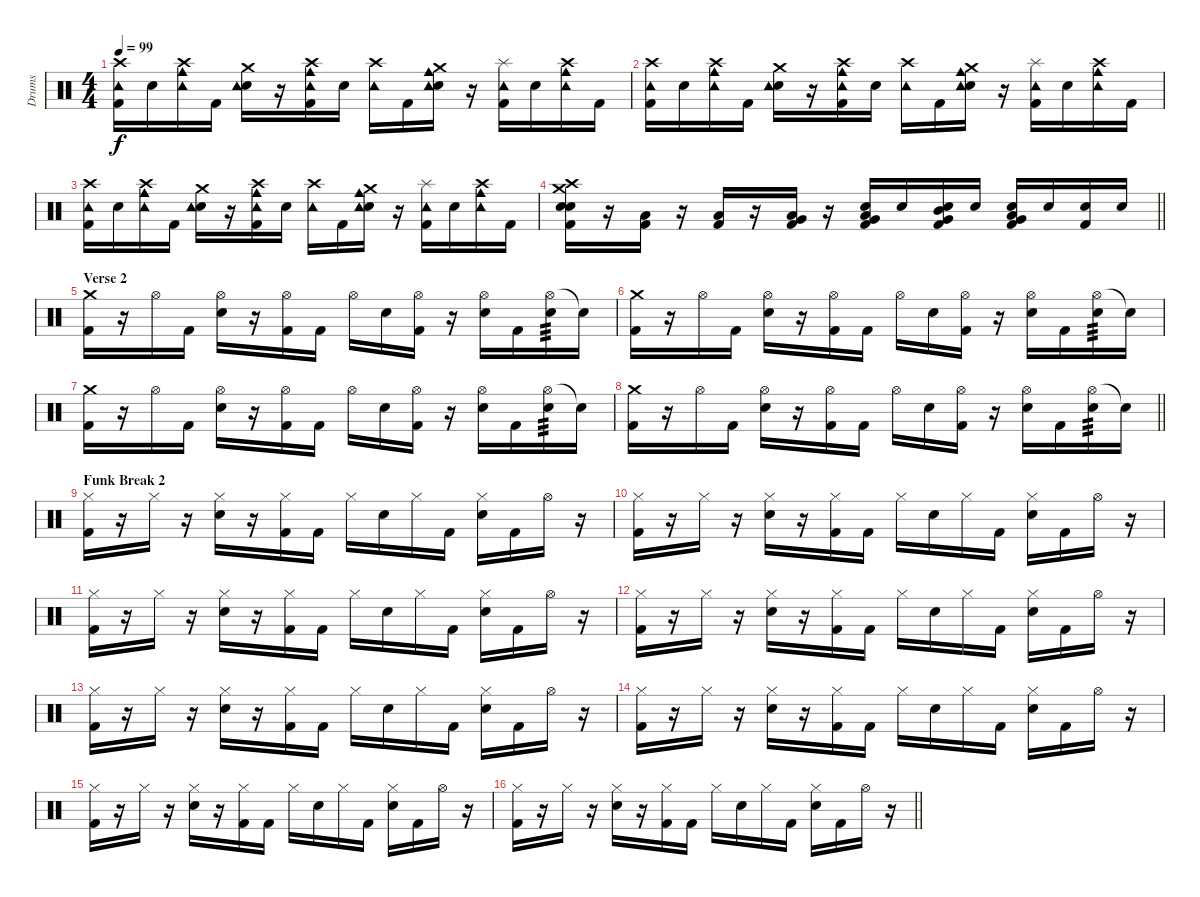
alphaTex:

\track ("Drums" "Drums") {instrument percussion}
\staff {score}
\articulation defaults
\ts (4 4)
\tempo 99
\clef neutral
\ks c
("Crash high (hit)" "Kick (hit) 2" "Tambourine (hit)").16{dy f} "Electric Snare (hit)".16 ("Crash high (hit)" "Tambourine (hit)" "Cowbell medium (hit)").16 "Kick (hit) 2".16 ("Crash medium (hit)" "Electric Snare (hit)" "Tambourine (hit)").16 r.16 ("Crash high (hit)" "Kick (hit) 2" "Tambourine (hit)" "Cowbell medium (hit)").16 "Electric Snare (hit)".16 ("Crash high (hit)" "Tambourine (hit)").16 "Kick (hit) 2".16 ("Crash medium (hit)" "Electric Snare (hit)" "Tambourine (hit)" "Cowbell medium (hit)").16 r.16 ("Splash (hit)" "Kick (hit) 2" "Tambourine (hit)").16 "Electric Snare (hit)".16 ("Crash high (hit)" "Tambourine (hit)" "Cowbell medium (hit)").16 "Kick (hit) 2".16 |
("Crash high (hit)" "Kick (hit) 2" "Tambourine (hit)").16 "Electric Snare (hit)".16 ("Crash high (hit)" "Tambourine (hit)" "Cowbell medium (hit)").16 "Kick (hit) 2".16 ("Crash medium (hit)" "Electric Snare (hit)" "Tambourine (hit)").16 r.16 ("Crash high (hit)" "Kick (hit) 2" "Tambourine (hit)" "Cowbell medium (hit)").16 "Electric Snare (hit)".16 ("Crash high (hit)" "Tambourine (hit)").16 "Kick (hit) 2".16 ("Crash medium (hit)" "Electric Snare (hit)" "Tambourine (hit)" "Cowbell medium (hit)").16 r.16 ("Splash (hit)" "Kick (hit) 2" "Tambourine (hit)").16 "Electric Snare (hit)".16 ("Crash high (hit)" "Tambourine (hit)" "Cowbell medium (hit)").16 "Kick (hit) 2".16 |
("Crash high (hit)" "Kick (hit) 2" "Tambourine (hit)").16 "Electric Snare (hit)".16 ("Crash high (hit)" "Tambourine (hit)" "Cowbell medium (hit)").16 "Kick (hit) 2".16 ("Crash medium (hit)" "Electric Snare (hit)" "Tambourine (hit)").16 r.16 ("Crash high (hit)" "Kick (hit) 2" "Tambourine (hit)" "Cowbell medium (hit)").16 "Electric Snare (hit)".16 ("Crash high (hit)" "Tambourine (hit)").16 "Kick (hit) 2".16 ("Crash medium (hit)" "Electric Snare (hit)" "Tambourine (hit)" "Cowbell medium (hit)").16 r.16 ("Splash (hit)" "Kick (hit) 2" "Tambourine (hit)").16 "Electric Snare (hit)".16 ("Crash high (hit)" "Tambourine (hit)" "Cowbell medium (hit)").16 "Kick (hit) 2".16 |
\barLineRight lightlight
("Crash high (hit)" "Crash medium (hit)" "Electric Snare (hit)" "Electric Snare (hit)" "Kick (hit) 2").16 r.16 ("Low Floor Tom (hit)" "Kick (hit) 2").16 r.16 ("Low Floor Tom (hit)" "Kick (hit) 2").16 r.16 ("Very Low Tom (hit)" "Low Floor Tom (hit)" "Kick (hit) 2").16 r.16 ("Electric Snare (hit)" "Low Tom (hit)" "Very Low Tom (hit)" "Kick (hit) 2").16 "Electric Snare (hit)".16 ("Electric Snare (hit)" "Very Low Tom (hit)" "Mid Tom (hit)" "Kick (hit) 2").16 "Electric Snare (hit)".16 ("Electric Snare (hit)" "Low Floor Tom (hit)" "Very Low Tom (hit)" "Kick (hit) 2").16 "Electric Snare (hit)".16 ("Electric Snare (hit)" "Kick (hit) 2").16 "Electric Snare (hit)".16 |
\section ("" "Verse 2")
("Crash medium (hit)" "Kick (hit) 2").16 r.16 "Hi-Hat (open)".16 "Kick (hit) 2".16 ("Hi-Hat (open)" "Electric Snare (hit)").16 r.16 ("Hi-Hat (open)" "Kick (hit) 2").16 "Kick (hit) 2".16 "Hi-Hat (open)".16 "Electric Snare (hit)".16 ("Hi-Hat (open)" "Kick (hit) 2").16 r.16 ("Hi-Hat (open)" "Electric Snare (hit)").16 "Kick (hit) 2".16 ("Hi-Hat (open)" "Electric Snare (hit)").16{tp 3} "Electric Snare (hit)"{t}.16 |
("Crash medium (hit)" "Kick (hit) 2").16 r.16 "Hi-Hat (open)".16 "Kick (hit) 2".16 ("Hi-Hat (open)" "Electric Snare (hit)").16 r.16 ("Hi-Hat (open)" "Kick (hit) 2").16 "Kick (hit) 2".16 "Hi-Hat (open)".16 "Electric Snare (hit)".16 ("Hi-Hat (open)" "Kick (hit) 2").16 r.16 ("Hi-Hat (open)" "Electric Snare (hit)").16 "Kick (hit) 2".16 ("Hi-Hat (open)" "Electric Snare (hit)").16{tp 3} "Electric Snare (hit)"{t}.16 |
("Crash medium (hit)" "Kick (hit) 2").16 r.16 "Hi-Hat (open)".16 "Kick (hit) 2".16 ("Hi-Hat (open)" "Electric Snare (hit)").16 r.16 ("Hi-Hat (open)" "Kick (hit) 2").16 "Kick (hit) 2".16 "Hi-Hat (open)".16 "Electric Snare (hit)".16 ("Hi-Hat (open)" "Kick (hit) 2").16 r.16 ("Hi-Hat (open)" "Electric Snare (hit)").16 "Kick (hit) 2".16 ("Hi-Hat (open)" "Electric Snare (hit)").16{tp 3} "Electric Snare (hit)"{t}.16 |
\barLineRight lightlight
("Crash medium (hit)" "Kick (hit) 2").16 r.16 "Hi-Hat (open)".16 "Kick (hit) 2".16 ("Hi-Hat (open)" "Electric Snare (hit)").16 r.16 ("Hi-Hat (open)" "Kick (hit) 2").16 "Kick (hit) 2".16 "Hi-Hat (open)".16 "Electric Snare (hit)".16 ("Hi-Hat (open)" "Kick (hit) 2").16 r.16 ("Hi-Hat (open)" "Electric Snare (hit)").16 "Kick (hit) 2".16 ("Hi-Hat (open)" "Electric Snare (hit)").16{tp 3} "Electric Snare (hit)"{t}.16 |
\section ("" "Funk Break 2")
("Hi-Hat (closed)" "Kick (hit) 2").16 r.16 "Hi-Hat (closed)".16 r.16 ("Hi-Hat (closed)" "Electric Snare (hit)").16 r.16 ("Hi-Hat (closed)" "Kick (hit) 2").16 "Kick (hit) 2".16 "Hi-Hat (closed)".16 "Electric Snare (hit)".16 "Hi-Hat (closed)".16 "Kick (hit) 2".16 ("Hi-Hat (closed)" "Electric Snare (hit)").16 "Kick (hit) 2".16 "Hi-Hat (open)".16 r.16 |
("Hi-Hat (closed)" "Kick (hit) 2").16 r.16 "Hi-Hat (closed)".16 r.16 ("Hi-Hat (closed)" "Electric Snare (hit)").16 r.16 ("Hi-Hat (closed)" "Kick (hit) 2").16 "Kick (hit) 2".16 "Hi-Hat (closed)".16 "Electric Snare (hit)".16 "Hi-Hat (closed)".16 "Kick (hit) 2".16 ("Hi-Hat (closed)" "Electric Snare (hit)").16 "Kick (hit) 2".16 "Hi-Hat (open)".16 r.16 |
("Hi-Hat (closed)" "Kick (hit) 2").16 r.16 "Hi-Hat (closed)".16 r.16 ("Hi-Hat (closed)" "Electric Snare (hit)").16 r.16 ("Hi-Hat (closed)" "Kick (hit) 2").16 "Kick (hit) 2".16 "Hi-Hat (closed)".16 "Electric Snare (hit)".16 "Hi-Hat (closed)".16 "Kick (hit) 2".16 ("Hi-Hat (closed)" "Electric Snare (hit)").16 "Kick (hit) 2".16 "Hi-Hat (open)".16 r.16 |
("Hi-Hat (closed)" "Kick (hit) 2").16 r.16 "Hi-Hat (closed)".16 r.16 ("Hi-Hat (closed)" "Electric Snare (hit)").16 r.16 ("Hi-Hat (closed)" "Kick (hit) 2").16 "Kick (hit) 2".16 "Hi-Hat (closed)".16 "Electric Snare (hit)".16 "Hi-Hat (closed)".16 "Kick (hit) 2".16 ("Hi-Hat (closed)" "Electric Snare (hit)").16 "Kick (hit) 2".16 "Hi-Hat (open)".16 r.16 |
("Hi-Hat (closed)" "Kick (hit) 2").16 r.16 "Hi-Hat (closed)".16 r.16 ("Hi-Hat (closed)" "Electric Snare (hit)").16 r.16 ("Hi-Hat (closed)" "Kick (hit) 2").16 "Kick (hit) 2".16 "Hi-Hat (closed)".16 "Electric Snare (hit)".16 "Hi-Hat (closed)".16 "Kick (hit) 2".16 ("Hi-Hat (closed)" "Electric Snare (hit)").16 "Kick (hit) 2".16 "Hi-Hat (open)".16 r.16 |
("Hi-Hat (closed)" "Kick (hit) 2").16 r.16 "Hi-Hat (closed)".16 r.16 ("Hi-Hat (closed)" "Electric Snare (hit)").16 r.16 ("Hi-Hat (closed)" "Kick (hit) 2").16 "Kick (hit) 2".16 "Hi-Hat (closed)".16 "Electric Snare (hit)".16 "Hi-Hat (closed)".16 "Kick (hit) 2".16 ("Hi-Hat (closed)" "Electric Snare (hit)").16 "Kick (hit) 2".16 "Hi-Hat (open)".16 r.16 |
("Hi-Hat (closed)" "Kick (hit) 2").16 r.16 "Hi-Hat (closed)".16 r.16 ("Hi-Hat (closed)" "Electric Snare (hit)").16 r.16 ("Hi-Hat (closed)" "Kick (hit) 2").16 "Kick (hit) 2".16 "Hi-Hat (closed)".16 "Electric Snare (hit)".16 "Hi-Hat (closed)".16 "Kick (hit) 2".16 ("Hi-Hat (closed)" "Electric Snare (hit)").16 "Kick (hit) 2".16 "Hi-Hat (open)".16 r.16 |
\barLineRight lightlight
("Hi-Hat (closed)" "Kick (hit) 2").16 r.16 "Hi-Hat (closed)".16 r.16 ("Hi-Hat (closed)" "Electric Snare (hit)").16 r.16 ("Hi-Hat (closed)" "Kick (hit) 2").16 "Kick (hit) 2".16 "Hi-Hat (closed)".16 "Electric Snare (hit)".16 "Hi-Hat (closed)".16 "Kick (hit) 2".16 ("Hi-Hat (closed)" "Electric Snare (hit)").16 "Kick (hit) 2".16 "Hi-Hat (open)".16 r.16
